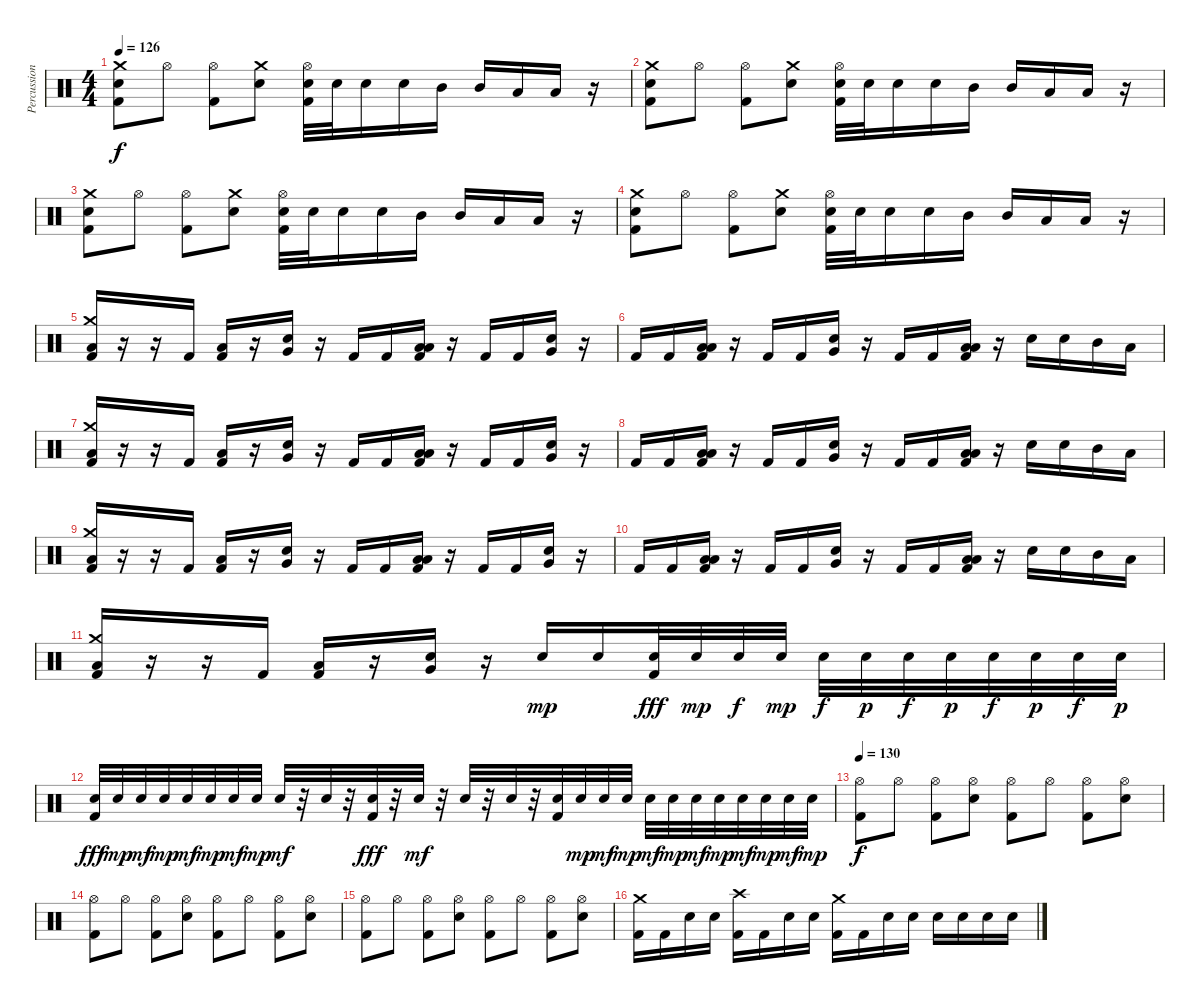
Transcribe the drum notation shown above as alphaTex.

\track ("Percussion" "Percussion") {instrument percussion}
\staff {score}
\articulation defaults
\ts (4 4)
\tempo 126
\clef neutral
\ks c
("Kick (hit) 2" "Electric Snare (hit)" "Crash medium (hit)").8{dy f} "Hi-Hat (open)".8 ("Kick (hit) 2" "Hi-Hat (open)").8 ("Electric Snare (hit)" "Crash medium (hit)").8 ("Kick (hit) 2" "Electric Snare (hit)" "Hi-Hat (open)").32 "Electric Snare (hit)".32 "Electric Snare (hit)".16 "Electric Snare (hit)".16 "Mid Tom (hit)".16 "Mid Tom (hit)".16 "Low Tom (hit)".16 "Low Tom (hit)".16 r.16 |
("Kick (hit) 2" "Electric Snare (hit)" "Crash medium (hit)").8 "Hi-Hat (open)".8 ("Kick (hit) 2" "Hi-Hat (open)").8 ("Electric Snare (hit)" "Crash medium (hit)").8 ("Kick (hit) 2" "Electric Snare (hit)" "Hi-Hat (open)").32 "Electric Snare (hit)".32 "Electric Snare (hit)".16 "Electric Snare (hit)".16 "Mid Tom (hit)".16 "Mid Tom (hit)".16 "Low Tom (hit)".16 "Low Tom (hit)".16 r.16 |
("Kick (hit) 2" "Electric Snare (hit)" "Crash medium (hit)").8 "Hi-Hat (open)".8 ("Kick (hit) 2" "Hi-Hat (open)").8 ("Electric Snare (hit)" "Crash medium (hit)").8 ("Kick (hit) 2" "Electric Snare (hit)" "Hi-Hat (open)").32 "Electric Snare (hit)".32 "Electric Snare (hit)".16 "Electric Snare (hit)".16 "Mid Tom (hit)".16 "Mid Tom (hit)".16 "Low Tom (hit)".16 "Low Tom (hit)".16 r.16 |
("Kick (hit) 2" "Electric Snare (hit)" "Crash medium (hit)").8 "Hi-Hat (open)".8 ("Kick (hit) 2" "Hi-Hat (open)").8 ("Electric Snare (hit)" "Crash medium (hit)").8 ("Kick (hit) 2" "Electric Snare (hit)" "Hi-Hat (open)").32 "Electric Snare (hit)".32 "Electric Snare (hit)".16 "Electric Snare (hit)".16 "Mid Tom (hit)".16 "Mid Tom (hit)".16 "Low Tom (hit)".16 "Low Tom (hit)".16 r.16 |
("Kick (hit) 2" "Low Floor Tom (hit)" "Crash medium (hit)").16 r.16 r.16 "Kick (hit) 2".16 ("Kick (hit) 2" "Low Floor Tom (hit)").16 r.16 ("Electric Snare (hit)" "Very Low Tom (hit)").16 r.16 "Kick (hit) 2".16 "Kick (hit) 2".16 ("Kick (hit) 2" "Low Floor Tom (hit)" "Low Tom (hit)").16 r.16 "Kick (hit) 2".16 "Kick (hit) 2".16 ("Electric Snare (hit)" "Very Low Tom (hit)").16 r.16 |
"Kick (hit) 2".16 "Kick (hit) 2".16 ("Kick (hit) 2" "Low Floor Tom (hit)" "Low Tom (hit)").16 r.16 "Kick (hit) 2".16 "Kick (hit) 2".16 ("Electric Snare (hit)" "Very Low Tom (hit)").16 r.16 "Kick (hit) 2".16 "Kick (hit) 2".16 ("Kick (hit) 2" "Low Floor Tom (hit)" "Low Tom (hit)").16 r.16 "Electric Snare (hit)".16 "Electric Snare (hit)".16 "Mid Tom (hit)".16 "Low Tom (hit)".16 |
("Kick (hit) 2" "Low Floor Tom (hit)" "Crash medium (hit)").16 r.16 r.16 "Kick (hit) 2".16 ("Kick (hit) 2" "Low Floor Tom (hit)").16 r.16 ("Electric Snare (hit)" "Very Low Tom (hit)").16 r.16 "Kick (hit) 2".16 "Kick (hit) 2".16 ("Kick (hit) 2" "Low Floor Tom (hit)" "Low Tom (hit)").16 r.16 "Kick (hit) 2".16 "Kick (hit) 2".16 ("Electric Snare (hit)" "Very Low Tom (hit)").16 r.16 |
"Kick (hit) 2".16 "Kick (hit) 2".16 ("Kick (hit) 2" "Low Floor Tom (hit)" "Low Tom (hit)").16 r.16 "Kick (hit) 2".16 "Kick (hit) 2".16 ("Electric Snare (hit)" "Very Low Tom (hit)").16 r.16 "Kick (hit) 2".16 "Kick (hit) 2".16 ("Kick (hit) 2" "Low Floor Tom (hit)" "Low Tom (hit)").16 r.16 "Electric Snare (hit)".16 "Electric Snare (hit)".16 "Mid Tom (hit)".16 "Low Tom (hit)".16 |
("Kick (hit) 2" "Low Floor Tom (hit)" "Crash medium (hit)").16 r.16 r.16 "Kick (hit) 2".16 ("Kick (hit) 2" "Low Floor Tom (hit)").16 r.16 ("Electric Snare (hit)" "Very Low Tom (hit)").16 r.16 "Kick (hit) 2".16 "Kick (hit) 2".16 ("Kick (hit) 2" "Low Floor Tom (hit)" "Low Tom (hit)").16 r.16 "Kick (hit) 2".16 "Kick (hit) 2".16 ("Electric Snare (hit)" "Very Low Tom (hit)").16 r.16 |
"Kick (hit) 2".16 "Kick (hit) 2".16 ("Kick (hit) 2" "Low Floor Tom (hit)" "Low Tom (hit)").16 r.16 "Kick (hit) 2".16 "Kick (hit) 2".16 ("Electric Snare (hit)" "Very Low Tom (hit)").16 r.16 "Kick (hit) 2".16 "Kick (hit) 2".16 ("Kick (hit) 2" "Low Floor Tom (hit)" "Low Tom (hit)").16 r.16 "Electric Snare (hit)".16 "Electric Snare (hit)".16 "Mid Tom (hit)".16 "Low Tom (hit)".16 |
("Kick (hit) 2" "Low Floor Tom (hit)" "Crash medium (hit)").16 r.16 r.16 "Kick (hit) 2".16 ("Kick (hit) 2" "Low Floor Tom (hit)").16 r.16 ("Electric Snare (hit)" "Very Low Tom (hit)").16 r.16 "Electric Snare (hit)".16{dy mp} "Electric Snare (hit)".16 ("Kick (hit) 2" "Electric Snare (hit)").32{dy fff} "Electric Snare (hit)".32{dy mp} "Electric Snare (hit)".32{dy f} "Electric Snare (hit)".32{dy mp} "Electric Snare (hit)".32{dy f} "Electric Snare (hit)".32{dy p} "Electric Snare (hit)".32{dy f} "Electric Snare (hit)".32{dy p} "Electric Snare (hit)".32{dy f} "Electric Snare (hit)".32{dy p} "Electric Snare (hit)".32{dy f} "Electric Snare (hit)".32{dy p} |
("Kick (hit) 2" "Electric Snare (hit)").32{dy fff} "Electric Snare (hit)".32{dy mp} "Electric Snare (hit)".32{dy mf} "Electric Snare (hit)".32{dy mp} "Electric Snare (hit)".32{dy mf} "Electric Snare (hit)".32{dy mp} "Electric Snare (hit)".32{dy mf} "Electric Snare (hit)".32{dy mp} "Electric Snare (hit)".32{dy mf} r.32 "Electric Snare (hit)".32 r.32 ("Kick (hit) 2" "Electric Snare (hit)").32{dy fff} r.32 "Electric Snare (hit)".32{dy mf} r.32 "Electric Snare (hit)".32 r.32 "Electric Snare (hit)".32 r.32 ("Kick (hit) 2" "Electric Snare (hit)").32 "Electric Snare (hit)".32{dy mp} "Electric Snare (hit)".32{dy mf} "Electric Snare (hit)".32{dy mp} "Electric Snare (hit)".32{dy mf} "Electric Snare (hit)".32{dy mp} "Electric Snare (hit)".32{dy mf} "Electric Snare (hit)".32{dy mp} "Electric Snare (hit)".32{dy mf} "Electric Snare (hit)".32{dy mp} "Electric Snare (hit)".32{dy mf} "Electric Snare (hit)".32{dy mp} |
\tempo 130
("Kick (hit) 2" "Hi-Hat (open)").8{dy f} "Hi-Hat (open)".8 ("Kick (hit) 2" "Hi-Hat (open)").8 ("Electric Snare (hit)" "Hi-Hat (open)").8 ("Kick (hit) 2" "Hi-Hat (open)").8 "Hi-Hat (open)".8 ("Kick (hit) 2" "Hi-Hat (open)").8 ("Electric Snare (hit)" "Hi-Hat (open)").8 |
("Kick (hit) 2" "Hi-Hat (open)").8 "Hi-Hat (open)".8 ("Kick (hit) 2" "Hi-Hat (open)").8 ("Electric Snare (hit)" "Hi-Hat (open)").8 ("Kick (hit) 2" "Hi-Hat (open)").8 "Hi-Hat (open)".8 ("Kick (hit) 2" "Hi-Hat (open)").8 ("Electric Snare (hit)" "Hi-Hat (open)").8 |
("Kick (hit) 2" "Hi-Hat (open)").8 "Hi-Hat (open)".8 ("Kick (hit) 2" "Hi-Hat (open)").8 ("Electric Snare (hit)" "Hi-Hat (open)").8 ("Kick (hit) 2" "Hi-Hat (open)").8 "Hi-Hat (open)".8 ("Kick (hit) 2" "Hi-Hat (open)").8 ("Electric Snare (hit)" "Hi-Hat (open)").8 |
("Kick (hit) 2" "Crash medium (hit)").16 "Kick (hit) 2".16 "Electric Snare (hit)".16 "Electric Snare (hit)".16 ("Kick (hit) 2" "Crash high (hit)").16 "Kick (hit) 2".16 "Electric Snare (hit)".16 "Electric Snare (hit)".16 ("Kick (hit) 2" "Crash medium (hit)").16 "Kick (hit) 2".16 "Electric Snare (hit)".16 "Electric Snare (hit)".16 "Electric Snare (hit)".16 "Electric Snare (hit)".16 "Electric Snare (hit)".16 "Electric Snare (hit)".16
